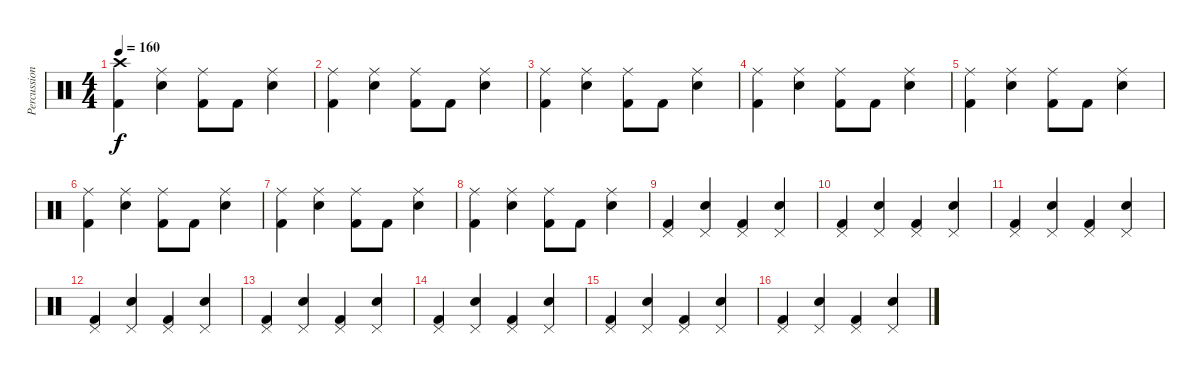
\track ("Percussion" "Percussion") {instrument percussion}
\staff {score}
\articulation defaults
\ts (4 4)
\tempo 160
\clef neutral
\ks c
("Crash high (hit)" "Kick (hit) 2").4{dy f} ("Ride (middle)" "Electric Snare (hit)").4 ("Ride (middle)" "Kick (hit) 2").8 "Kick (hit) 2".8 ("Ride (middle)" "Electric Snare (hit)").4 |
("Ride (middle)" "Kick (hit) 2").4 ("Ride (middle)" "Electric Snare (hit)").4 ("Ride (middle)" "Kick (hit) 2").8 "Kick (hit) 2".8 ("Ride (middle)" "Electric Snare (hit)").4 |
("Ride (middle)" "Kick (hit) 2").4 ("Ride (middle)" "Electric Snare (hit)").4 ("Ride (middle)" "Kick (hit) 2").8 "Kick (hit) 2".8 ("Ride (middle)" "Electric Snare (hit)").4 |
("Ride (middle)" "Kick (hit) 2").4 ("Ride (middle)" "Electric Snare (hit)").4 ("Ride (middle)" "Kick (hit) 2").8 "Kick (hit) 2".8 ("Ride (middle)" "Electric Snare (hit)").4 |
("Ride (middle)" "Kick (hit) 2").4 ("Ride (middle)" "Electric Snare (hit)").4 ("Ride (middle)" "Kick (hit) 2").8 "Kick (hit) 2".8 ("Ride (middle)" "Electric Snare (hit)").4 |
("Ride (middle)" "Kick (hit) 2").4 ("Ride (middle)" "Electric Snare (hit)").4 ("Ride (middle)" "Kick (hit) 2").8 "Kick (hit) 2".8 ("Ride (middle)" "Electric Snare (hit)").4 |
("Ride (middle)" "Kick (hit) 2").4 ("Ride (middle)" "Electric Snare (hit)").4 ("Ride (middle)" "Kick (hit) 2").8 "Kick (hit) 2".8 ("Ride (middle)" "Electric Snare (hit)").4 |
("Ride (middle)" "Kick (hit) 2").4 ("Ride (middle)" "Electric Snare (hit)").4 ("Ride (middle)" "Kick (hit) 2").8 "Kick (hit) 2".8 ("Ride (middle)" "Electric Snare (hit)").4 |
("Pedal Hi-Hat (hit)" "Kick (hit) 2").4 ("Pedal Hi-Hat (hit)" "Electric Snare (hit)").4 ("Pedal Hi-Hat (hit)" "Kick (hit) 2").4 ("Pedal Hi-Hat (hit)" "Electric Snare (hit)").4 |
("Pedal Hi-Hat (hit)" "Kick (hit) 2").4 ("Pedal Hi-Hat (hit)" "Electric Snare (hit)").4 ("Pedal Hi-Hat (hit)" "Kick (hit) 2").4 ("Pedal Hi-Hat (hit)" "Electric Snare (hit)").4 |
("Pedal Hi-Hat (hit)" "Kick (hit) 2").4 ("Pedal Hi-Hat (hit)" "Electric Snare (hit)").4 ("Pedal Hi-Hat (hit)" "Kick (hit) 2").4 ("Pedal Hi-Hat (hit)" "Electric Snare (hit)").4 |
("Pedal Hi-Hat (hit)" "Kick (hit) 2").4 ("Pedal Hi-Hat (hit)" "Electric Snare (hit)").4 ("Pedal Hi-Hat (hit)" "Kick (hit) 2").4 ("Pedal Hi-Hat (hit)" "Electric Snare (hit)").4 |
("Pedal Hi-Hat (hit)" "Kick (hit) 2").4 ("Pedal Hi-Hat (hit)" "Electric Snare (hit)").4 ("Pedal Hi-Hat (hit)" "Kick (hit) 2").4 ("Pedal Hi-Hat (hit)" "Electric Snare (hit)").4 |
("Pedal Hi-Hat (hit)" "Kick (hit) 2").4 ("Pedal Hi-Hat (hit)" "Electric Snare (hit)").4 ("Pedal Hi-Hat (hit)" "Kick (hit) 2").4 ("Pedal Hi-Hat (hit)" "Electric Snare (hit)").4 |
("Pedal Hi-Hat (hit)" "Kick (hit) 2").4 ("Pedal Hi-Hat (hit)" "Electric Snare (hit)").4 ("Pedal Hi-Hat (hit)" "Kick (hit) 2").4 ("Pedal Hi-Hat (hit)" "Electric Snare (hit)").4 |
("Pedal Hi-Hat (hit)" "Kick (hit) 2").4 ("Pedal Hi-Hat (hit)" "Electric Snare (hit)").4 ("Pedal Hi-Hat (hit)" "Kick (hit) 2").4 ("Pedal Hi-Hat (hit)" "Electric Snare (hit)").4
